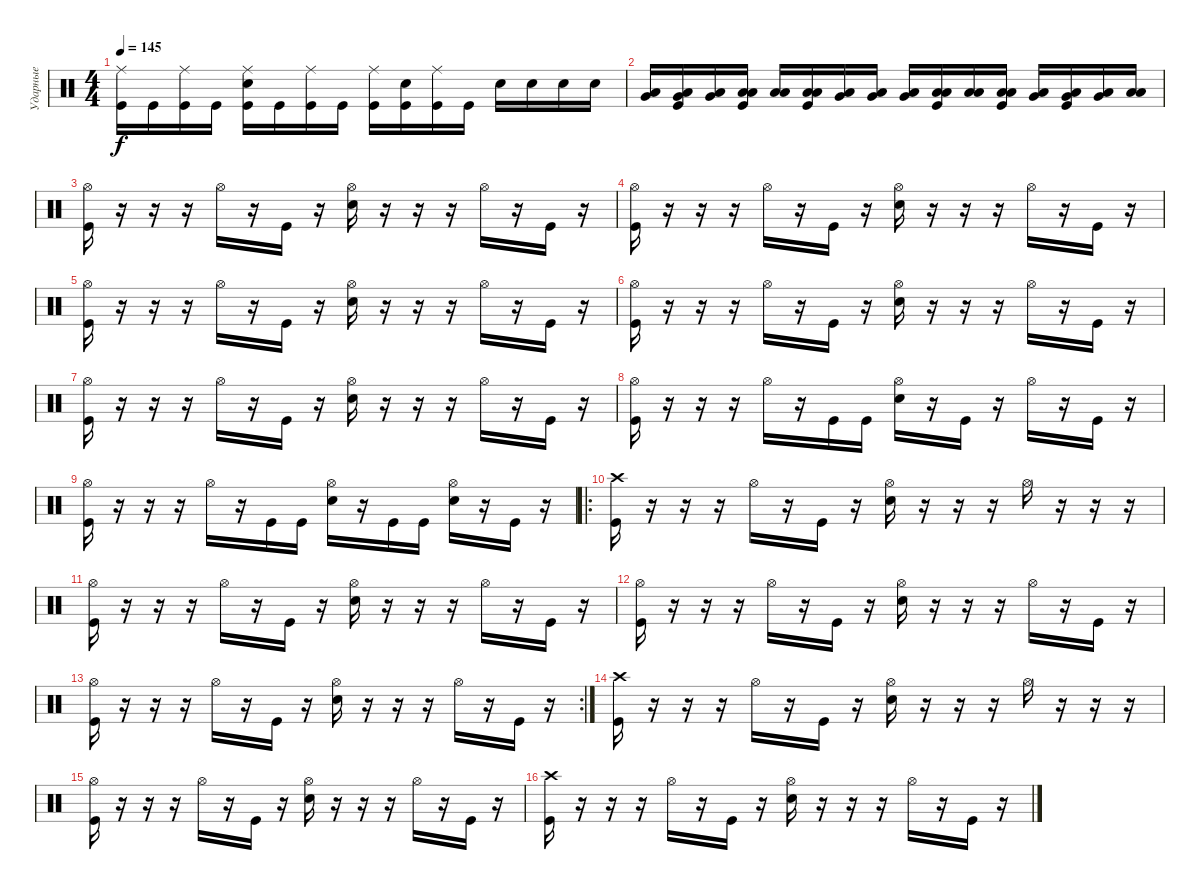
\track ("Ударные" "Ударные") {instrument percussion}
\staff {score}
\articulation defaults
\ts (4 4)
\tempo 145
\clef neutral
\ks c
("Ride (middle)" "Kick (hit)").16{dy f} "Kick (hit)".16 ("Ride (middle)" "Kick (hit)").16 "Kick (hit)".16 ("Ride (middle)" "Snare (hit) 2" "Kick (hit)").16 "Kick (hit)".16 ("Ride (middle)" "Kick (hit)").16 "Kick (hit)".16 ("Ride (middle)" "Kick (hit)").16 ("Snare (hit) 2" "Kick (hit)").16 ("Ride (middle)" "Kick (hit)").16 "Kick (hit)".16 "Snare (hit) 2".16 "Snare (hit) 2".16 "Snare (hit) 2".16 "Snare (hit) 2".16 |
("Low Tom (hit)" "Very Low Tom (hit)").16 ("Low Tom (hit)" "Very Low Tom (hit)" "Kick (hit)").16 ("Low Tom (hit)" "Very Low Tom (hit)").16 ("Low Tom (hit)" "Low Tom (hit)" "Kick (hit)").16 ("Low Tom (hit)" "Low Tom (hit)").16 ("Low Tom (hit)" "Low Tom (hit)" "Kick (hit)").16 ("Low Tom (hit)" "Very Low Tom (hit)").16 ("Low Tom (hit)" "Very Low Tom (hit)").16 ("Low Tom (hit)" "Very Low Tom (hit)").16 ("Low Tom (hit)" "Low Tom (hit)" "Kick (hit)").16 ("Low Tom (hit)" "Low Tom (hit)").16 ("Low Tom (hit)" "Low Tom (hit)" "Kick (hit)").16 ("Low Tom (hit)" "Very Low Tom (hit)").16 ("Low Tom (hit)" "Very Low Tom (hit)" "Kick (hit)").16 ("Low Tom (hit)" "Very Low Tom (hit)").16 ("Low Tom (hit)" "Low Tom (hit)").16 |
("Hi-Hat (open)" "Kick (hit)").16{volume 11} r.16 r.16 r.16 "Hi-Hat (open)".16 r.16 "Kick (hit)".16 r.16 ("Hi-Hat (open)" "Snare (hit) 2").16 r.16 r.16 r.16 "Hi-Hat (open)".16 r.16 "Kick (hit)".16 r.16 |
("Hi-Hat (open)" "Kick (hit)").16 r.16 r.16 r.16 "Hi-Hat (open)".16 r.16 "Kick (hit)".16 r.16 ("Hi-Hat (open)" "Snare (hit) 2").16 r.16 r.16 r.16 "Hi-Hat (open)".16 r.16 "Kick (hit)".16 r.16 |
("Hi-Hat (open)" "Kick (hit)").16 r.16 r.16 r.16 "Hi-Hat (open)".16 r.16 "Kick (hit)".16 r.16 ("Hi-Hat (open)" "Snare (hit) 2").16 r.16 r.16 r.16 "Hi-Hat (open)".16 r.16 "Kick (hit)".16 r.16 |
("Hi-Hat (open)" "Kick (hit)").16 r.16 r.16 r.16 "Hi-Hat (open)".16 r.16 "Kick (hit)".16 r.16 ("Hi-Hat (open)" "Snare (hit) 2").16 r.16 r.16 r.16 "Hi-Hat (open)".16 r.16 "Kick (hit)".16 r.16 |
("Hi-Hat (open)" "Kick (hit)").16 r.16 r.16 r.16 "Hi-Hat (open)".16 r.16 "Kick (hit)".16 r.16 ("Hi-Hat (open)" "Snare (hit) 2").16 r.16 r.16 r.16 "Hi-Hat (open)".16 r.16 "Kick (hit)".16 r.16 |
("Hi-Hat (open)" "Kick (hit)").16 r.16 r.16 r.16 "Hi-Hat (open)".16 r.16 "Kick (hit)".16 "Kick (hit)".16 ("Hi-Hat (open)" "Snare (hit) 2").16 r.16 "Kick (hit)".16 r.16 "Hi-Hat (open)".16 r.16 "Kick (hit)".16 r.16 |
("Hi-Hat (open)" "Kick (hit)").16 r.16 r.16 r.16 "Hi-Hat (open)".16 r.16 "Kick (hit)".16 "Kick (hit)".16 ("Hi-Hat (open)" "Snare (hit) 2").16 r.16 "Kick (hit)".16 "Kick (hit)".16 ("Hi-Hat (open)" "Snare (hit) 2").16 r.16 "Kick (hit)".16 r.16 |
\ro
("Crash high (hit)" "Kick (hit)").16{volume 11} r.16 r.16 r.16 "Hi-Hat (open)".16 r.16 "Kick (hit)".16 r.16 ("Hi-Hat (open)" "Snare (hit) 2").16 r.16 r.16 r.16 "Hi-Hat (open)".16 r.16 r.16 r.16 |
("Hi-Hat (open)" "Kick (hit)").16 r.16 r.16 r.16 "Hi-Hat (open)".16 r.16 "Kick (hit)".16 r.16 ("Hi-Hat (open)" "Snare (hit) 2").16 r.16 r.16 r.16 "Hi-Hat (open)".16 r.16 "Kick (hit)".16 r.16 |
("Hi-Hat (open)" "Kick (hit)").16 r.16 r.16 r.16 "Hi-Hat (open)".16 r.16 "Kick (hit)".16 r.16 ("Hi-Hat (open)" "Snare (hit) 2").16 r.16 r.16 r.16 "Hi-Hat (open)".16 r.16 "Kick (hit)".16 r.16 |
\rc 2
("Hi-Hat (open)" "Kick (hit)").16 r.16 r.16 r.16 "Hi-Hat (open)".16 r.16 "Kick (hit)".16 r.16 ("Hi-Hat (open)" "Snare (hit) 2").16 r.16 r.16 r.16 "Hi-Hat (open)".16 r.16 "Kick (hit)".16 r.16 |
("Crash high (hit)" "Kick (hit)").16{volume 11} r.16 r.16 r.16 "Hi-Hat (open)".16 r.16 "Kick (hit)".16 r.16 ("Hi-Hat (open)" "Snare (hit) 2").16 r.16 r.16 r.16 "Hi-Hat (open)".16 r.16 r.16 r.16 |
("Hi-Hat (open)" "Kick (hit)").16 r.16 r.16 r.16 "Hi-Hat (open)".16 r.16 "Kick (hit)".16 r.16 ("Hi-Hat (open)" "Snare (hit) 2").16 r.16 r.16 r.16 "Hi-Hat (open)".16 r.16 "Kick (hit)".16 r.16 |
("Crash high (hit)" "Kick (hit)").16 r.16 r.16 r.16 "Hi-Hat (open)".16 r.16 "Kick (hit)".16 r.16 ("Hi-Hat (open)" "Snare (hit) 2").16 r.16 r.16 r.16 "Hi-Hat (open)".16 r.16 "Kick (hit)".16 r.16
